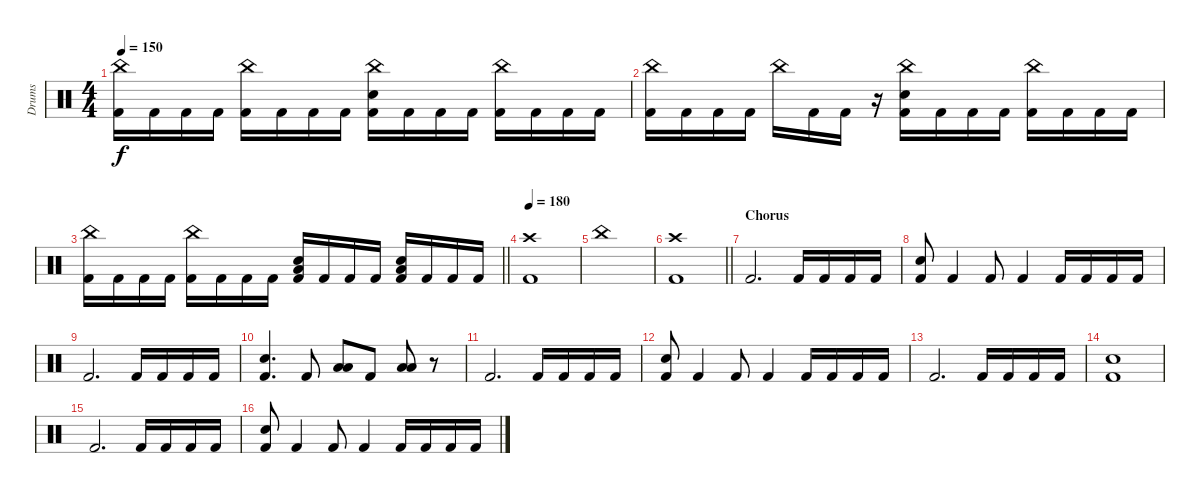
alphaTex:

\track ("Drums" "Drums") {instrument percussion}
\staff {score}
\articulation defaults
\ts (4 4)
\tempo 150
\clef neutral
\ks c
("China (hit)" "Kick (hit) 2").16{dy f} "Kick (hit) 2".16 "Kick (hit) 2".16 "Kick (hit) 2".16 ("China (hit)" "Kick (hit) 2").16 "Kick (hit) 2".16 "Kick (hit) 2".16 "Kick (hit) 2".16 ("China (hit)" "Electric Snare (hit)" "Kick (hit) 2").16 "Kick (hit) 2".16 "Kick (hit) 2".16 "Kick (hit) 2".16 ("China (hit)" "Kick (hit) 2").16 "Kick (hit) 2".16 "Kick (hit) 2".16 "Kick (hit) 2".16 |
("China (hit)" "Kick (hit) 2").16 "Kick (hit) 2".16 "Kick (hit) 2".16 "Kick (hit) 2".16 "China (hit)".16 "Kick (hit) 2".16 "Kick (hit) 2".16 r.16 ("China (hit)" "Electric Snare (hit)" "Kick (hit) 2").16 "Kick (hit) 2".16 "Kick (hit) 2".16 "Kick (hit) 2".16 ("China (hit)" "Kick (hit) 2").16 "Kick (hit) 2".16 "Kick (hit) 2".16 "Kick (hit) 2".16 |
\barLineRight lightlight
("China (hit)" "Kick (hit) 2").16 "Kick (hit) 2".16 "Kick (hit) 2".16 "Kick (hit) 2".16 ("China (hit)" "Kick (hit) 2").16 "Kick (hit) 2".16 "Kick (hit) 2".16 "Kick (hit) 2".16 ("Low Floor Tom (hit)" "Electric Snare (hit)" "Kick (hit) 2").16 "Kick (hit) 2".16 "Kick (hit) 2".16 "Kick (hit) 2".16 ("Low Floor Tom (hit)" "Electric Snare (hit)" "Kick (hit) 2").16 "Kick (hit) 2".16 "Kick (hit) 2".16 "Kick (hit) 2".16 |
\tempo 180
("Crash high (hit)" "Kick (hit) 2").1 |
"China (hit)".1 |
\barLineRight lightlight
("Crash high (hit)" "Kick (hit) 2").1 |
\section ("" "Chorus")
"Kick (hit) 2".2{d} "Kick (hit) 2".16 "Kick (hit) 2".16 "Kick (hit) 2".16 "Kick (hit) 2".16 |
("Electric Snare (hit)" "Kick (hit) 2").8 "Kick (hit) 2".4 "Kick (hit) 2".8 "Kick (hit) 2".4 "Kick (hit) 2".16 "Kick (hit) 2".16 "Kick (hit) 2".16 "Kick (hit) 2".16 |
"Kick (hit) 2".2{d} "Kick (hit) 2".16 "Kick (hit) 2".16 "Kick (hit) 2".16 "Kick (hit) 2".16 |
("Electric Snare (hit)" "Kick (hit) 2").4{d} "Kick (hit) 2".8 ("Low Tom (hit)" "Low Tom (hit)").8 "Kick (hit) 2".8 ("Low Floor Tom (hit)" "Low Floor Tom (hit)").8 r.8 |
"Kick (hit) 2".2{d} "Kick (hit) 2".16 "Kick (hit) 2".16 "Kick (hit) 2".16 "Kick (hit) 2".16 |
("Electric Snare (hit)" "Kick (hit) 2").8 "Kick (hit) 2".4 "Kick (hit) 2".8 "Kick (hit) 2".4 "Kick (hit) 2".16 "Kick (hit) 2".16 "Kick (hit) 2".16 "Kick (hit) 2".16 |
"Kick (hit) 2".2{d} "Kick (hit) 2".16 "Kick (hit) 2".16 "Kick (hit) 2".16 "Kick (hit) 2".16 |
("Electric Snare (hit)" "Kick (hit) 2").1 |
"Kick (hit) 2".2{d} "Kick (hit) 2".16 "Kick (hit) 2".16 "Kick (hit) 2".16 "Kick (hit) 2".16 |
("Electric Snare (hit)" "Kick (hit) 2").8 "Kick (hit) 2".4 "Kick (hit) 2".8 "Kick (hit) 2".4 "Kick (hit) 2".16 "Kick (hit) 2".16 "Kick (hit) 2".16 "Kick (hit) 2".16
